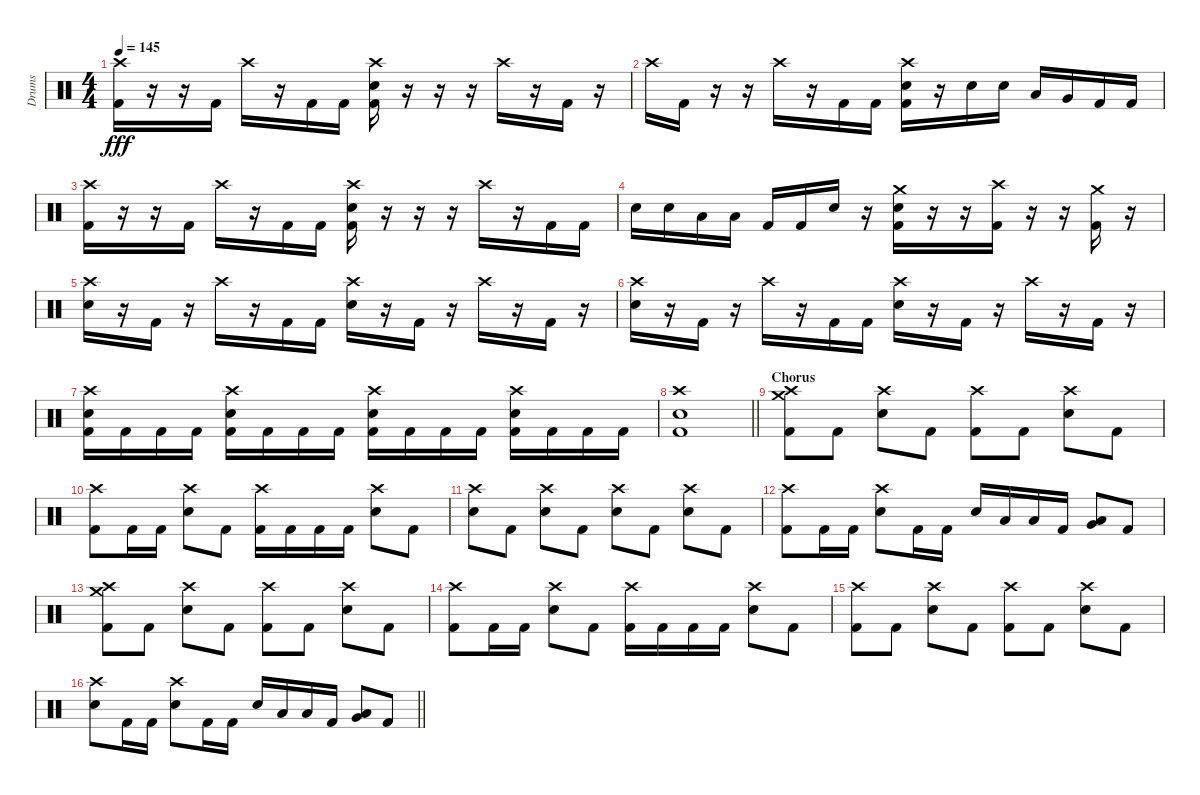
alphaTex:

\track ("Drums" "Drums") {instrument percussion}
\staff {score}
\articulation defaults
\ts (4 4)
\tempo 145
\clef neutral
\ks c
("Crash high (hit)" "Kick (hit) 2").16{dy fff} r.16 r.16 "Kick (hit) 2".16 "Crash high (hit)".16 r.16 "Kick (hit) 2".16 "Kick (hit) 2".16 ("Crash high (hit)" "Electric Snare (hit)" "Kick (hit) 2").16 r.16 r.16 r.16 "Crash high (hit)".16 r.16 "Kick (hit) 2".16 r.16 |
"Crash high (hit)".16 "Kick (hit) 2".16 r.16 r.16 "Crash high (hit)".16 r.16 "Kick (hit) 2".16 "Kick (hit) 2".16 ("Crash high (hit)" "Electric Snare (hit)" "Kick (hit) 2").16 r.16 "Electric Snare (hit)".16 "Electric Snare (hit)".16 "Low Tom (hit)".16 "Very Low Tom (hit)".16 "Kick (hit) 2".16 "Kick (hit) 2".16 |
("Crash high (hit)" "Kick (hit) 2").16 r.16 r.16 "Kick (hit) 2".16 "Crash high (hit)".16 r.16 "Kick (hit) 2".16 "Kick (hit) 2".16 ("Crash high (hit)" "Electric Snare (hit)" "Kick (hit) 2").16 r.16 r.16 r.16 "Crash high (hit)".16 r.16 "Kick (hit) 2".16 "Kick (hit) 2".16 |
"Electric Snare (hit)".16 "Electric Snare (hit)".16 "Low Tom (hit)".16 "Low Floor Tom (hit)".16 "Kick (hit) 2".16 "Kick (hit) 2".16 "Electric Snare (hit)".16 r.16 ("Crash medium (hit)" "Electric Snare (hit)" "Kick (hit) 2").16 r.16 r.16 ("Crash high (hit)" "Kick (hit) 2").16 r.16 r.16 ("Crash medium (hit)" "Kick (hit) 2").16 r.16 |
("Crash high (hit)" "Electric Snare (hit)").16 r.16 "Kick (hit) 2".16 r.16 "Crash high (hit)".16 r.16 "Kick (hit) 2".16 "Kick (hit) 2".16 ("Crash high (hit)" "Electric Snare (hit)").16 r.16 "Kick (hit) 2".16 r.16 "Crash high (hit)".16 r.16 "Kick (hit) 2".16 r.16 |
("Crash high (hit)" "Electric Snare (hit)").16 r.16 "Kick (hit) 2".16 r.16 "Crash high (hit)".16 r.16 "Kick (hit) 2".16 "Kick (hit) 2".16 ("Crash high (hit)" "Electric Snare (hit)").16 r.16 "Kick (hit) 2".16 r.16 "Crash high (hit)".16 r.16 "Kick (hit) 2".16 r.16 |
("Crash high (hit)" "Electric Snare (hit)" "Kick (hit) 2").16 "Kick (hit) 2".16 "Kick (hit) 2".16 "Kick (hit) 2".16 ("Crash high (hit)" "Electric Snare (hit)" "Kick (hit) 2").16 "Kick (hit) 2".16 "Kick (hit) 2".16 "Kick (hit) 2".16 ("Crash high (hit)" "Electric Snare (hit)" "Kick (hit) 2").16 "Kick (hit) 2".16 "Kick (hit) 2".16 "Kick (hit) 2".16 ("Crash high (hit)" "Electric Snare (hit)" "Kick (hit) 2").16 "Kick (hit) 2".16 "Kick (hit) 2".16 "Kick (hit) 2".16 |
\barLineRight lightlight
("Crash high (hit)" "Electric Snare (hit)" "Kick (hit) 2").1 |
\section ("" "Chorus")
("Crash medium (hit)" "Crash high (hit)" "Kick (hit) 2").8 "Kick (hit) 2".8 ("Crash high (hit)" "Electric Snare (hit)").8 "Kick (hit) 2".8 ("Crash high (hit)" "Kick (hit) 2").8 "Kick (hit) 2".8 ("Crash high (hit)" "Electric Snare (hit)").8 "Kick (hit) 2".8 |
("Crash high (hit)" "Kick (hit) 2").8 "Kick (hit) 2".16 "Kick (hit) 2".16 ("Crash high (hit)" "Electric Snare (hit)").8 "Kick (hit) 2".8 ("Crash high (hit)" "Kick (hit) 2").16 "Kick (hit) 2".16 "Kick (hit) 2".16 "Kick (hit) 2".16 ("Crash high (hit)" "Electric Snare (hit)").8 "Kick (hit) 2".8 |
("Crash high (hit)" "Electric Snare (hit)").8 "Kick (hit) 2".8 ("Crash high (hit)" "Electric Snare (hit)").8 "Kick (hit) 2".8 ("Crash high (hit)" "Electric Snare (hit)").8 "Kick (hit) 2".8 ("Crash high (hit)" "Electric Snare (hit)").8 "Kick (hit) 2".8 |
("Crash high (hit)" "Kick (hit) 2").8 "Kick (hit) 2".16 "Kick (hit) 2".16 ("Crash high (hit)" "Electric Snare (hit)").8 "Kick (hit) 2".16 "Kick (hit) 2".16 "Electric Snare (hit)".16 "Low Tom (hit)".16 "Low Floor Tom (hit)".16 "Kick (hit) 2".16 ("Very Low Tom (hit)" "Low Floor Tom (hit)").8 "Kick (hit) 2".8 |
("Crash medium (hit)" "Crash high (hit)" "Kick (hit) 2").8 "Kick (hit) 2".8 ("Crash high (hit)" "Electric Snare (hit)").8 "Kick (hit) 2".8 ("Crash high (hit)" "Kick (hit) 2").8 "Kick (hit) 2".8 ("Crash high (hit)" "Electric Snare (hit)").8 "Kick (hit) 2".8 |
("Crash high (hit)" "Kick (hit) 2").8 "Kick (hit) 2".16 "Kick (hit) 2".16 ("Crash high (hit)" "Electric Snare (hit)").8 "Kick (hit) 2".8 ("Crash high (hit)" "Kick (hit) 2").16 "Kick (hit) 2".16 "Kick (hit) 2".16 "Kick (hit) 2".16 ("Crash high (hit)" "Electric Snare (hit)").8 "Kick (hit) 2".8 |
("Crash high (hit)" "Kick (hit) 2").8 "Kick (hit) 2".8 ("Crash high (hit)" "Electric Snare (hit)").8 "Kick (hit) 2".8 ("Crash high (hit)" "Kick (hit) 2").8 "Kick (hit) 2".8 ("Crash high (hit)" "Electric Snare (hit)").8 "Kick (hit) 2".8 |
\barLineRight lightlight
("Crash high (hit)" "Electric Snare (hit)").8 "Kick (hit) 2".16 "Kick (hit) 2".16 ("Crash high (hit)" "Electric Snare (hit)").8 "Kick (hit) 2".16 "Kick (hit) 2".16 "Electric Snare (hit)".16 "Low Tom (hit)".16 "Low Floor Tom (hit)".16 "Kick (hit) 2".16 ("Very Low Tom (hit)" "Low Floor Tom (hit)").8 "Kick (hit) 2".8
